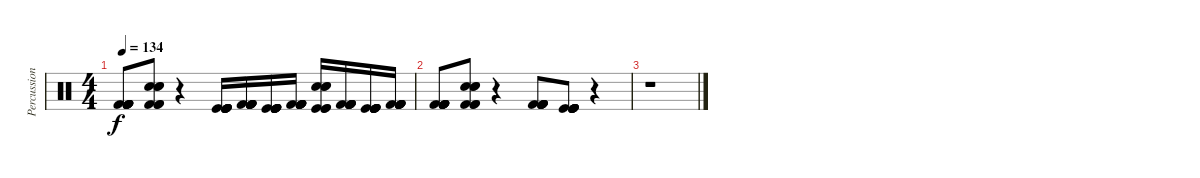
\track ("Percussion" "Percussion") {instrument percussion}
\staff {score}
\articulation defaults
\ts (4 4)
\tempo 134
\clef neutral
\ks c
("Kick (hit) 2" "Kick (hit) 2" "Kick (hit) 2" "Kick (hit) 2" "Kick (hit) 2" "Kick (hit) 2").8{dy f} ("Electric Snare (hit)" "Electric Snare (hit)" "Electric Snare (hit)" "Kick (hit) 2" "Kick (hit) 2" "Kick (hit) 2").8 r.4 ("Kick (hit)" "Kick (hit)" "Kick (hit)" "Kick (hit)" "Kick (hit)" "Kick (hit)").16 ("Kick (hit) 2" "Kick (hit) 2" "Kick (hit) 2" "Kick (hit) 2" "Kick (hit) 2" "Kick (hit) 2").16 ("Kick (hit)" "Kick (hit)" "Kick (hit)" "Kick (hit)" "Kick (hit)" "Kick (hit)").16 ("Kick (hit) 2" "Kick (hit) 2" "Kick (hit) 2" "Kick (hit) 2" "Kick (hit) 2" "Kick (hit) 2").16 ("Electric Snare (hit)" "Electric Snare (hit)" "Electric Snare (hit)" "Kick (hit)" "Kick (hit)" "Kick (hit)").16 ("Kick (hit) 2" "Kick (hit) 2" "Kick (hit) 2" "Kick (hit) 2" "Kick (hit) 2" "Kick (hit) 2").16 ("Kick (hit)" "Kick (hit)" "Kick (hit)" "Kick (hit)" "Kick (hit)" "Kick (hit)").16 ("Kick (hit) 2" "Kick (hit) 2" "Kick (hit) 2" "Kick (hit) 2" "Kick (hit) 2" "Kick (hit) 2").16 |
("Kick (hit) 2" "Kick (hit) 2" "Kick (hit) 2" "Kick (hit) 2" "Kick (hit) 2" "Kick (hit) 2").8 ("Electric Snare (hit)" "Electric Snare (hit)" "Electric Snare (hit)" "Kick (hit) 2" "Kick (hit) 2" "Kick (hit) 2").8 r.4 ("Kick (hit) 2" "Kick (hit) 2" "Kick (hit) 2" "Kick (hit) 2" "Kick (hit) 2" "Kick (hit) 2").8 ("Kick (hit)" "Kick (hit)" "Kick (hit)" "Kick (hit)" "Kick (hit)" "Kick (hit)").8 r.4 |
r.1
